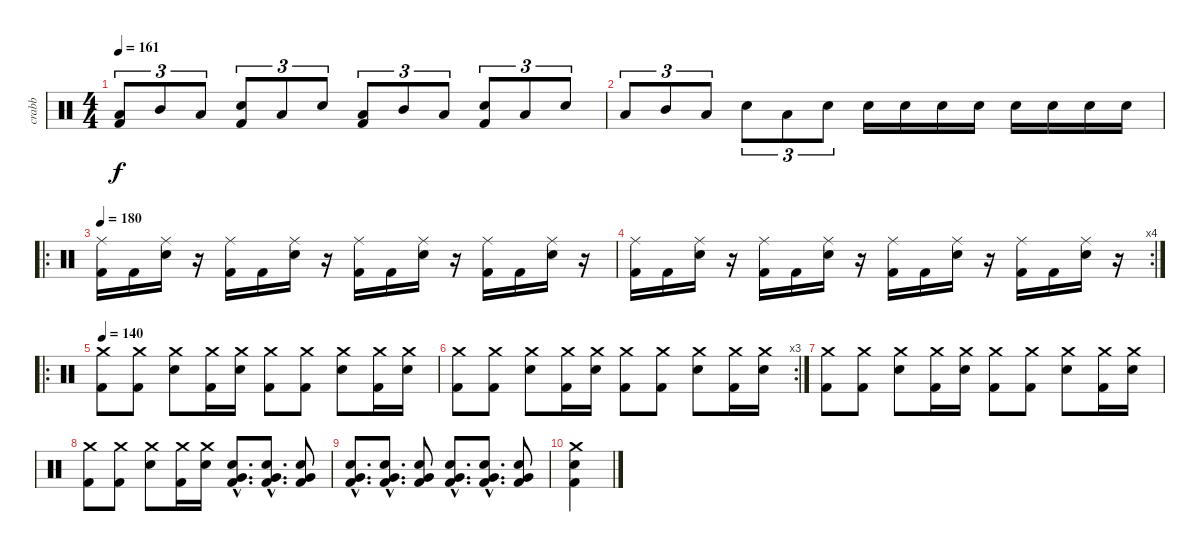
\track ("crabb" "crabb") {instrument percussion}
\staff {score}
\articulation defaults
\ts (4 4)
\tempo 161
\clef neutral
\ks c
("Kick (hit) 2" "Low Floor Tom (hit)").8{tu (3 2) dy f} "Mid Tom (hit)".8{tu (3 2)} "Low Floor Tom (hit)".8{tu (3 2)} ("Kick (hit) 2" "Electric Snare (hit)").8{tu (3 2)} "Low Floor Tom (hit)".8{tu (3 2)} "Electric Snare (hit)".8{tu (3 2)} ("Kick (hit) 2" "Low Floor Tom (hit)").8{tu (3 2)} "Mid Tom (hit)".8{tu (3 2)} "Low Floor Tom (hit)".8{tu (3 2)} ("Kick (hit) 2" "Electric Snare (hit)").8{tu (3 2)} "Low Floor Tom (hit)".8{tu (3 2)} "Electric Snare (hit)".8{tu (3 2)} |
"Low Floor Tom (hit)".8{tu (3 2)} "Mid Tom (hit)".8{tu (3 2)} "Low Floor Tom (hit)".8{tu (3 2)} "Electric Snare (hit)".8{tu (3 2)} "Low Floor Tom (hit)".8{tu (3 2)} "Electric Snare (hit)".8{tu (3 2)} "Electric Snare (hit)".16 "Electric Snare (hit)".16 "Electric Snare (hit)".16 "Electric Snare (hit)".16 "Electric Snare (hit)".16 "Electric Snare (hit)".16 "Electric Snare (hit)".16 "Electric Snare (hit)".16 |
\ro
\tempo 180
("Ride (middle)" "Kick (hit) 2").16 "Kick (hit) 2".16 ("Ride (middle)" "Electric Snare (hit)").16 r.16 ("Ride (middle)" "Kick (hit) 2").16 "Kick (hit) 2".16 ("Ride (middle)" "Electric Snare (hit)").16 r.16 ("Ride (middle)" "Kick (hit) 2").16 "Kick (hit) 2".16 ("Ride (middle)" "Electric Snare (hit)").16 r.16 ("Ride (middle)" "Kick (hit) 2").16 "Kick (hit) 2".16 ("Ride (middle)" "Electric Snare (hit)").16 r.16 |
\rc 4
("Ride (middle)" "Kick (hit) 2").16 "Kick (hit) 2".16 ("Ride (middle)" "Electric Snare (hit)").16 r.16 ("Ride (middle)" "Kick (hit) 2").16 "Kick (hit) 2".16 ("Ride (middle)" "Electric Snare (hit)").16 r.16 ("Ride (middle)" "Kick (hit) 2").16 "Kick (hit) 2".16 ("Ride (middle)" "Electric Snare (hit)").16 r.16 ("Ride (middle)" "Kick (hit) 2").16 "Kick (hit) 2".16 ("Ride (middle)" "Electric Snare (hit)").16 r.16 |
\ro
\tempo 140
("Crash medium (hit)" "Kick (hit) 2").8 ("Crash medium (hit)" "Kick (hit) 2").8 ("Crash medium (hit)" "Electric Snare (hit)").8 ("Crash medium (hit)" "Kick (hit) 2").16 ("Crash medium (hit)" "Electric Snare (hit)").16 ("Crash medium (hit)" "Kick (hit) 2").8 ("Crash medium (hit)" "Kick (hit) 2").8 ("Crash medium (hit)" "Electric Snare (hit)").8 ("Crash medium (hit)" "Kick (hit) 2").16 ("Crash medium (hit)" "Electric Snare (hit)").16 |
\rc 3
("Crash medium (hit)" "Kick (hit) 2").8 ("Crash medium (hit)" "Kick (hit) 2").8 ("Crash medium (hit)" "Electric Snare (hit)").8 ("Crash medium (hit)" "Kick (hit) 2").16 ("Crash medium (hit)" "Electric Snare (hit)").16 ("Crash medium (hit)" "Kick (hit) 2").8 ("Crash medium (hit)" "Kick (hit) 2").8 ("Crash medium (hit)" "Electric Snare (hit)").8 ("Crash medium (hit)" "Kick (hit) 2").16 ("Crash medium (hit)" "Electric Snare (hit)").16 |
("Crash medium (hit)" "Kick (hit) 2").8 ("Crash medium (hit)" "Kick (hit) 2").8 ("Crash medium (hit)" "Electric Snare (hit)").8 ("Crash medium (hit)" "Kick (hit) 2").16 ("Crash medium (hit)" "Electric Snare (hit)").16 ("Crash medium (hit)" "Kick (hit) 2").8 ("Crash medium (hit)" "Kick (hit) 2").8 ("Crash medium (hit)" "Electric Snare (hit)").8 ("Crash medium (hit)" "Kick (hit) 2").16 ("Crash medium (hit)" "Electric Snare (hit)").16 |
("Crash medium (hit)" "Kick (hit) 2").8 ("Crash medium (hit)" "Kick (hit) 2").8 ("Crash medium (hit)" "Electric Snare (hit)").8 ("Crash medium (hit)" "Kick (hit) 2").16 ("Crash medium (hit)" "Electric Snare (hit)").16 ("Very Low Tom (hit)"{hac} "Kick (hit) 2"{hac} "Electric Snare (hit)"{hac}).8{d} ("Very Low Tom (hit)"{hac} "Kick (hit) 2"{hac} "Electric Snare (hit)"{hac}).8{d} ("Very Low Tom (hit)" "Kick (hit) 2" "Electric Snare (hit)").8 |
("Very Low Tom (hit)"{hac} "Kick (hit) 2"{hac} "Electric Snare (hit)"{hac}).8{d} ("Very Low Tom (hit)"{hac} "Kick (hit) 2"{hac} "Electric Snare (hit)"{hac}).8{d} ("Very Low Tom (hit)" "Kick (hit) 2" "Electric Snare (hit)").8 ("Very Low Tom (hit)"{hac} "Kick (hit) 2"{hac} "Electric Snare (hit)"{hac}).8{d} ("Very Low Tom (hit)"{hac} "Kick (hit) 2"{hac} "Electric Snare (hit)"{hac}).8{d} ("Very Low Tom (hit)" "Kick (hit) 2" "Electric Snare (hit)").8 |
("Crash medium (hit)" "Kick (hit) 2" "Electric Snare (hit)").4
